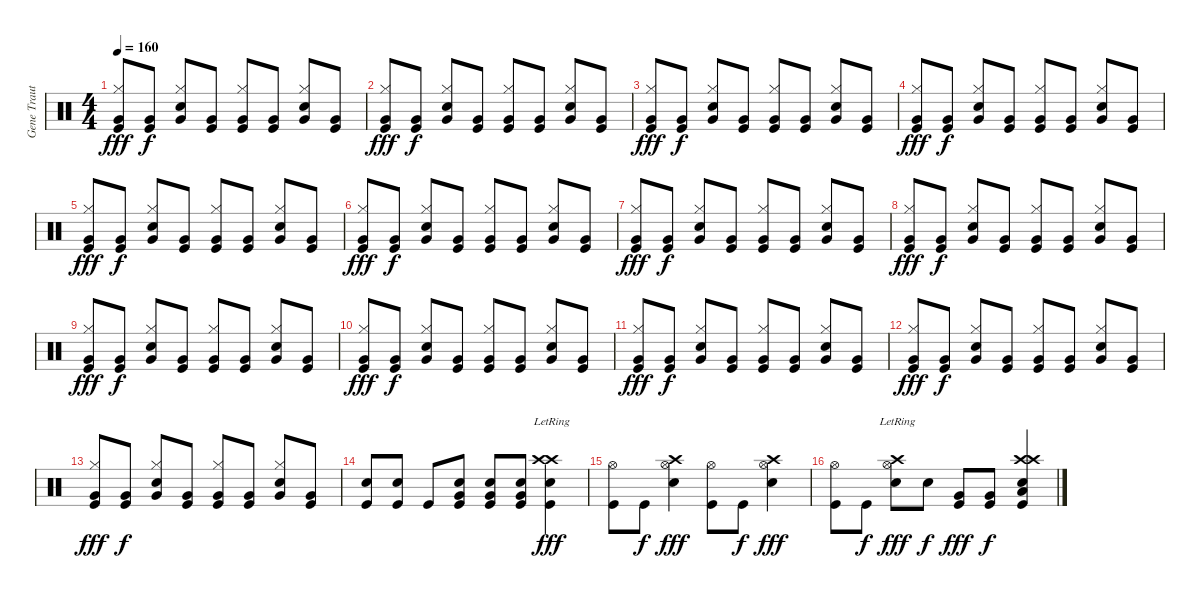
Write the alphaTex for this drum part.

\track ("Gene Trautmann" "Gene Traut") {instrument percussion}
\staff {score}
\articulation defaults
\ts (4 4)
\tempo 160
\clef neutral
\ks c
("Very Low Tom (hit)" "Hi-Hat (closed)" "Kick (hit)").8{dy fff} ("Very Low Tom (hit)" "Kick (hit)").8{dy f} ("Very Low Tom (hit)" "Hi-Hat (closed)" "Snare (hit) 2").8 ("Very Low Tom (hit)" "Kick (hit)").8 ("Very Low Tom (hit)" "Hi-Hat (closed)" "Kick (hit)").8 ("Very Low Tom (hit)" "Kick (hit)").8 ("Very Low Tom (hit)" "Hi-Hat (closed)" "Snare (hit) 2").8 ("Very Low Tom (hit)" "Kick (hit)").8 |
("Very Low Tom (hit)" "Hi-Hat (closed)" "Kick (hit)").8{dy fff} ("Very Low Tom (hit)" "Kick (hit)").8{dy f} ("Very Low Tom (hit)" "Hi-Hat (closed)" "Snare (hit) 2").8 ("Very Low Tom (hit)" "Kick (hit)").8 ("Very Low Tom (hit)" "Hi-Hat (closed)" "Kick (hit)").8 ("Very Low Tom (hit)" "Kick (hit)").8 ("Very Low Tom (hit)" "Hi-Hat (closed)" "Snare (hit) 2").8 ("Very Low Tom (hit)" "Kick (hit)").8 |
("Very Low Tom (hit)" "Hi-Hat (closed)" "Kick (hit)").8{dy fff} ("Very Low Tom (hit)" "Kick (hit)").8{dy f} ("Very Low Tom (hit)" "Hi-Hat (closed)" "Snare (hit) 2").8 ("Very Low Tom (hit)" "Kick (hit)").8 ("Very Low Tom (hit)" "Hi-Hat (closed)" "Kick (hit)").8 ("Very Low Tom (hit)" "Kick (hit)").8 ("Very Low Tom (hit)" "Hi-Hat (closed)" "Snare (hit) 2").8 ("Very Low Tom (hit)" "Kick (hit)").8 |
("Very Low Tom (hit)" "Hi-Hat (closed)" "Kick (hit)").8{dy fff} ("Very Low Tom (hit)" "Kick (hit)").8{dy f} ("Very Low Tom (hit)" "Hi-Hat (closed)" "Snare (hit) 2").8 ("Very Low Tom (hit)" "Kick (hit)").8 ("Very Low Tom (hit)" "Hi-Hat (closed)" "Kick (hit)").8 ("Very Low Tom (hit)" "Kick (hit)").8 ("Very Low Tom (hit)" "Hi-Hat (closed)" "Snare (hit) 2").8 ("Very Low Tom (hit)" "Kick (hit)").8 |
("Very Low Tom (hit)" "Hi-Hat (closed)" "Kick (hit)").8{dy fff} ("Very Low Tom (hit)" "Kick (hit)").8{dy f} ("Very Low Tom (hit)" "Hi-Hat (closed)" "Snare (hit) 2").8 ("Very Low Tom (hit)" "Kick (hit)").8 ("Very Low Tom (hit)" "Hi-Hat (closed)" "Kick (hit)").8 ("Very Low Tom (hit)" "Kick (hit)").8 ("Very Low Tom (hit)" "Hi-Hat (closed)" "Snare (hit) 2").8 ("Very Low Tom (hit)" "Kick (hit)").8 |
("Very Low Tom (hit)" "Hi-Hat (closed)" "Kick (hit)").8{dy fff} ("Very Low Tom (hit)" "Kick (hit)").8{dy f} ("Very Low Tom (hit)" "Hi-Hat (closed)" "Snare (hit) 2").8 ("Very Low Tom (hit)" "Kick (hit)").8 ("Very Low Tom (hit)" "Hi-Hat (closed)" "Kick (hit)").8 ("Very Low Tom (hit)" "Kick (hit)").8 ("Very Low Tom (hit)" "Hi-Hat (closed)" "Snare (hit) 2").8 ("Very Low Tom (hit)" "Kick (hit)").8 |
("Very Low Tom (hit)" "Hi-Hat (closed)" "Kick (hit)").8{dy fff} ("Very Low Tom (hit)" "Kick (hit)").8{dy f} ("Very Low Tom (hit)" "Hi-Hat (closed)" "Snare (hit) 2").8 ("Very Low Tom (hit)" "Kick (hit)").8 ("Very Low Tom (hit)" "Hi-Hat (closed)" "Kick (hit)").8 ("Very Low Tom (hit)" "Kick (hit)").8 ("Very Low Tom (hit)" "Hi-Hat (closed)" "Snare (hit) 2").8 ("Very Low Tom (hit)" "Kick (hit)").8 |
("Very Low Tom (hit)" "Hi-Hat (closed)" "Kick (hit)").8{dy fff} ("Very Low Tom (hit)" "Kick (hit)").8{dy f} ("Very Low Tom (hit)" "Hi-Hat (closed)" "Snare (hit) 2").8 ("Very Low Tom (hit)" "Kick (hit)").8 ("Very Low Tom (hit)" "Hi-Hat (closed)" "Kick (hit)").8 ("Very Low Tom (hit)" "Kick (hit)").8 ("Very Low Tom (hit)" "Hi-Hat (closed)" "Snare (hit) 2").8 ("Very Low Tom (hit)" "Kick (hit)").8 |
("Very Low Tom (hit)" "Hi-Hat (closed)" "Kick (hit)").8{dy fff} ("Very Low Tom (hit)" "Kick (hit)").8{dy f} ("Very Low Tom (hit)" "Hi-Hat (closed)" "Snare (hit) 2").8 ("Very Low Tom (hit)" "Kick (hit)").8 ("Very Low Tom (hit)" "Hi-Hat (closed)" "Kick (hit)").8 ("Very Low Tom (hit)" "Kick (hit)").8 ("Very Low Tom (hit)" "Hi-Hat (closed)" "Snare (hit) 2").8 ("Very Low Tom (hit)" "Kick (hit)").8 |
("Very Low Tom (hit)" "Hi-Hat (closed)" "Kick (hit)").8{dy fff} ("Very Low Tom (hit)" "Kick (hit)").8{dy f} ("Very Low Tom (hit)" "Hi-Hat (closed)" "Snare (hit) 2").8 ("Very Low Tom (hit)" "Kick (hit)").8 ("Very Low Tom (hit)" "Hi-Hat (closed)" "Kick (hit)").8 ("Very Low Tom (hit)" "Kick (hit)").8 ("Very Low Tom (hit)" "Hi-Hat (closed)" "Snare (hit) 2").8 ("Very Low Tom (hit)" "Kick (hit)").8 |
("Very Low Tom (hit)" "Hi-Hat (closed)" "Kick (hit)").8{dy fff} ("Very Low Tom (hit)" "Kick (hit)").8{dy f} ("Very Low Tom (hit)" "Hi-Hat (closed)" "Snare (hit) 2").8 ("Very Low Tom (hit)" "Kick (hit)").8 ("Very Low Tom (hit)" "Hi-Hat (closed)" "Kick (hit)").8 ("Very Low Tom (hit)" "Kick (hit)").8 ("Very Low Tom (hit)" "Hi-Hat (closed)" "Snare (hit) 2").8 ("Very Low Tom (hit)" "Kick (hit)").8 |
("Very Low Tom (hit)" "Hi-Hat (closed)" "Kick (hit)").8{dy fff} ("Very Low Tom (hit)" "Kick (hit)").8{dy f} ("Very Low Tom (hit)" "Hi-Hat (closed)" "Snare (hit) 2").8 ("Very Low Tom (hit)" "Kick (hit)").8 ("Very Low Tom (hit)" "Hi-Hat (closed)" "Kick (hit)").8 ("Very Low Tom (hit)" "Kick (hit)").8 ("Very Low Tom (hit)" "Hi-Hat (closed)" "Snare (hit) 2").8 ("Very Low Tom (hit)" "Kick (hit)").8 |
("Very Low Tom (hit)" "Hi-Hat (closed)" "Kick (hit)").8{dy fff} ("Very Low Tom (hit)" "Kick (hit)").8{dy f} ("Very Low Tom (hit)" "Hi-Hat (closed)" "Snare (hit) 2").8 ("Very Low Tom (hit)" "Kick (hit)").8 ("Very Low Tom (hit)" "Hi-Hat (closed)" "Kick (hit)").8 ("Very Low Tom (hit)" "Kick (hit)").8 ("Very Low Tom (hit)" "Hi-Hat (closed)" "Snare (hit) 2").8 ("Very Low Tom (hit)" "Kick (hit)").8 |
("Snare (hit) 2" "Kick (hit)").8 ("Snare (hit) 2" "Kick (hit)").8 "Kick (hit)".8 ("Very Low Tom (hit)" "Snare (hit) 2" "Kick (hit)").8 ("Very Low Tom (hit)" "Snare (hit) 2" "Kick (hit)").8 ("Very Low Tom (hit)" "Snare (hit) 2" "Kick (hit)").8 ("Crash high (hit)"{lr} "Crash high (hit)"{lr} "Snare (hit) 2" "Kick (hit)").4{dy fff} |
("Hi-Hat (open)" "Kick (hit)").8 "Kick (hit)".8{dy f} ("Crash high (hit)" "Hi-Hat (open)" "Snare (hit) 2").4{dy fff} ("Hi-Hat (open)" "Kick (hit)").8 "Kick (hit)".8{dy f} ("Crash high (hit)" "Hi-Hat (open)" "Snare (hit) 2").4{dy fff} |
("Hi-Hat (open)" "Kick (hit)").8 "Kick (hit)".8{dy f} ("Crash high (hit)" "Hi-Hat (open)"{lr} "Snare (hit) 2").8{dy fff} "Snare (hit) 2".8{dy f} ("Very Low Tom (hit)" "Kick (hit)").8{dy fff} ("Very Low Tom (hit)" "Kick (hit)").8{dy f} ("Crash high (hit)" "Crash high (hit)" "Low Tom (hit)" "Snare (hit) 2" "Kick (hit)").4
